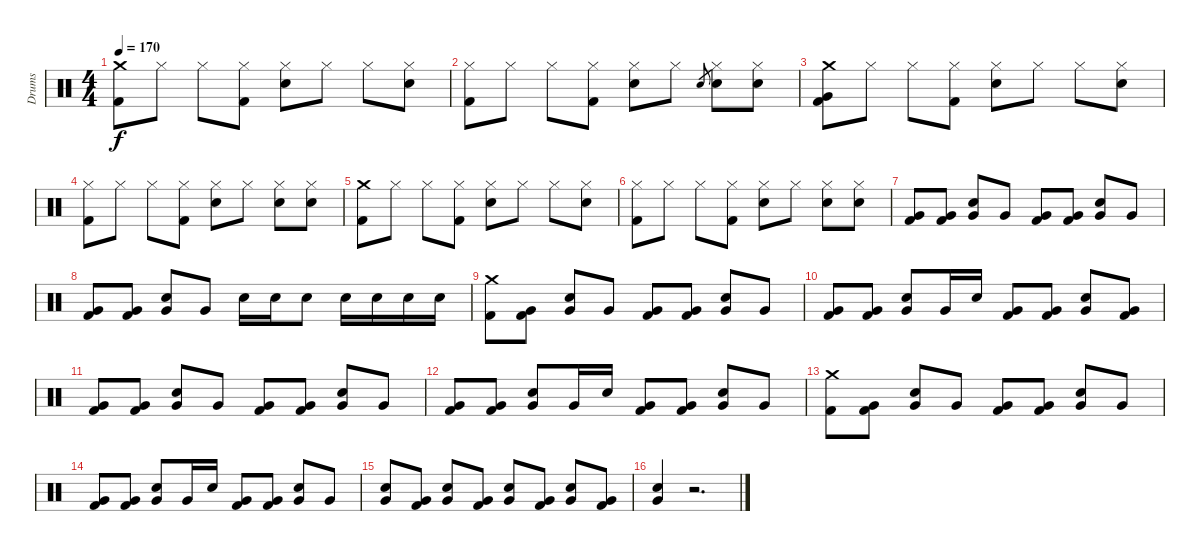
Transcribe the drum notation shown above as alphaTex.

\track ("Drums" "Drums") {instrument percussion}
\staff {score}
\articulation defaults
\ts (4 4)
\tempo 170
\clef neutral
\ks c
("Crash medium (hit)" "Kick (hit) 2").8{dy f} "Hi-Hat (closed)".8 "Hi-Hat (closed)".8 ("Hi-Hat (closed)" "Kick (hit) 2").8 ("Hi-Hat (closed)" "Electric Snare (hit)").8 "Hi-Hat (closed)".8 "Hi-Hat (closed)".8 ("Hi-Hat (closed)" "Electric Snare (hit)").8 |
("Hi-Hat (closed)" "Kick (hit) 2").8 "Hi-Hat (closed)".8 "Hi-Hat (closed)".8 ("Hi-Hat (closed)" "Kick (hit) 2").8 ("Hi-Hat (closed)" "Electric Snare (hit)").8 "Hi-Hat (closed)".8 "Electric Snare (hit)".8{gr} ("Hi-Hat (closed)" "Electric Snare (hit)").8 ("Hi-Hat (closed)" "Electric Snare (hit)").8 |
("Crash medium (hit)" "Very Low Tom (hit)" "Kick (hit) 2").8 "Hi-Hat (closed)".8 "Hi-Hat (closed)".8 ("Hi-Hat (closed)" "Kick (hit) 2").8 ("Hi-Hat (closed)" "Electric Snare (hit)").8 "Hi-Hat (closed)".8 "Hi-Hat (closed)".8 ("Hi-Hat (closed)" "Electric Snare (hit)").8 |
("Hi-Hat (closed)" "Kick (hit) 2").8 "Hi-Hat (closed)".8 "Hi-Hat (closed)".8 ("Hi-Hat (closed)" "Kick (hit) 2").8 ("Hi-Hat (closed)" "Electric Snare (hit)").8 "Hi-Hat (closed)".8 ("Hi-Hat (closed)" "Electric Snare (hit)").8 ("Hi-Hat (closed)" "Electric Snare (hit)").8 |
("Crash medium (hit)" "Kick (hit) 2").8 "Hi-Hat (closed)".8 "Hi-Hat (closed)".8 ("Hi-Hat (closed)" "Kick (hit) 2").8 ("Hi-Hat (closed)" "Electric Snare (hit)").8 "Hi-Hat (closed)".8 "Hi-Hat (closed)".8 ("Hi-Hat (closed)" "Electric Snare (hit)").8 |
("Hi-Hat (closed)" "Kick (hit) 2").8 "Hi-Hat (closed)".8 "Hi-Hat (closed)".8 ("Hi-Hat (closed)" "Kick (hit) 2").8 ("Hi-Hat (closed)" "Electric Snare (hit)").8 "Hi-Hat (closed)".8 ("Hi-Hat (closed)" "Electric Snare (hit)").8 ("Hi-Hat (closed)" "Electric Snare (hit)").8 |
("Very Low Tom (hit)" "Kick (hit) 2").8 ("Very Low Tom (hit)" "Kick (hit) 2").8 ("Very Low Tom (hit)" "Electric Snare (hit)").8 "Very Low Tom (hit)".8 ("Very Low Tom (hit)" "Kick (hit) 2").8 ("Very Low Tom (hit)" "Kick (hit) 2").8 ("Very Low Tom (hit)" "Electric Snare (hit)").8 "Very Low Tom (hit)".8 |
("Very Low Tom (hit)" "Kick (hit) 2").8 ("Very Low Tom (hit)" "Kick (hit) 2").8 ("Very Low Tom (hit)" "Electric Snare (hit)").8 "Very Low Tom (hit)".8 "Electric Snare (hit)".16 "Electric Snare (hit)".16 "Electric Snare (hit)".8 "Electric Snare (hit)".16 "Electric Snare (hit)".16 "Electric Snare (hit)".16 "Electric Snare (hit)".16 |
("Crash medium (hit)" "Kick (hit) 2").8 ("Very Low Tom (hit)" "Kick (hit) 2").8 ("Very Low Tom (hit)" "Electric Snare (hit)").8 "Very Low Tom (hit)".8 ("Very Low Tom (hit)" "Kick (hit) 2").8 ("Very Low Tom (hit)" "Kick (hit) 2").8 ("Very Low Tom (hit)" "Electric Snare (hit)").8 "Very Low Tom (hit)".8 |
("Very Low Tom (hit)" "Kick (hit) 2").8 ("Very Low Tom (hit)" "Kick (hit) 2").8 ("Very Low Tom (hit)" "Electric Snare (hit)").8 "Very Low Tom (hit)".16 "Electric Snare (hit)".16 ("Very Low Tom (hit)" "Kick (hit) 2").8 ("Very Low Tom (hit)" "Kick (hit) 2").8 ("Very Low Tom (hit)" "Electric Snare (hit)").8 ("Very Low Tom (hit)" "Kick (hit) 2").8 |
("Very Low Tom (hit)" "Kick (hit) 2").8 ("Very Low Tom (hit)" "Kick (hit) 2").8 ("Very Low Tom (hit)" "Electric Snare (hit)").8 "Very Low Tom (hit)".8 ("Very Low Tom (hit)" "Kick (hit) 2").8 ("Very Low Tom (hit)" "Kick (hit) 2").8 ("Very Low Tom (hit)" "Electric Snare (hit)").8 "Very Low Tom (hit)".8 |
("Very Low Tom (hit)" "Kick (hit) 2").8 ("Very Low Tom (hit)" "Kick (hit) 2").8 ("Very Low Tom (hit)" "Electric Snare (hit)").8 "Very Low Tom (hit)".16 "Electric Snare (hit)".16 ("Very Low Tom (hit)" "Kick (hit) 2").8 ("Very Low Tom (hit)" "Kick (hit) 2").8 ("Very Low Tom (hit)" "Electric Snare (hit)").8 "Very Low Tom (hit)".8 |
("Crash medium (hit)" "Kick (hit) 2").8 ("Very Low Tom (hit)" "Kick (hit) 2").8 ("Very Low Tom (hit)" "Electric Snare (hit)").8 "Very Low Tom (hit)".8 ("Very Low Tom (hit)" "Kick (hit) 2").8 ("Very Low Tom (hit)" "Kick (hit) 2").8 ("Very Low Tom (hit)" "Electric Snare (hit)").8 "Very Low Tom (hit)".8 |
("Very Low Tom (hit)" "Kick (hit) 2").8 ("Very Low Tom (hit)" "Kick (hit) 2").8 ("Very Low Tom (hit)" "Electric Snare (hit)").8 "Very Low Tom (hit)".16 "Electric Snare (hit)".16 ("Very Low Tom (hit)" "Kick (hit) 2").8 ("Very Low Tom (hit)" "Kick (hit) 2").8 ("Very Low Tom (hit)" "Electric Snare (hit)").8 "Very Low Tom (hit)".8 |
("Very Low Tom (hit)" "Electric Snare (hit)").8 ("Very Low Tom (hit)" "Kick (hit) 2").8 ("Very Low Tom (hit)" "Electric Snare (hit)").8 ("Very Low Tom (hit)" "Kick (hit) 2").8 ("Very Low Tom (hit)" "Electric Snare (hit)").8 ("Very Low Tom (hit)" "Kick (hit) 2").8 ("Very Low Tom (hit)" "Electric Snare (hit)").8 ("Very Low Tom (hit)" "Kick (hit) 2").8 |
("Very Low Tom (hit)" "Electric Snare (hit)").4 r.2{d}
